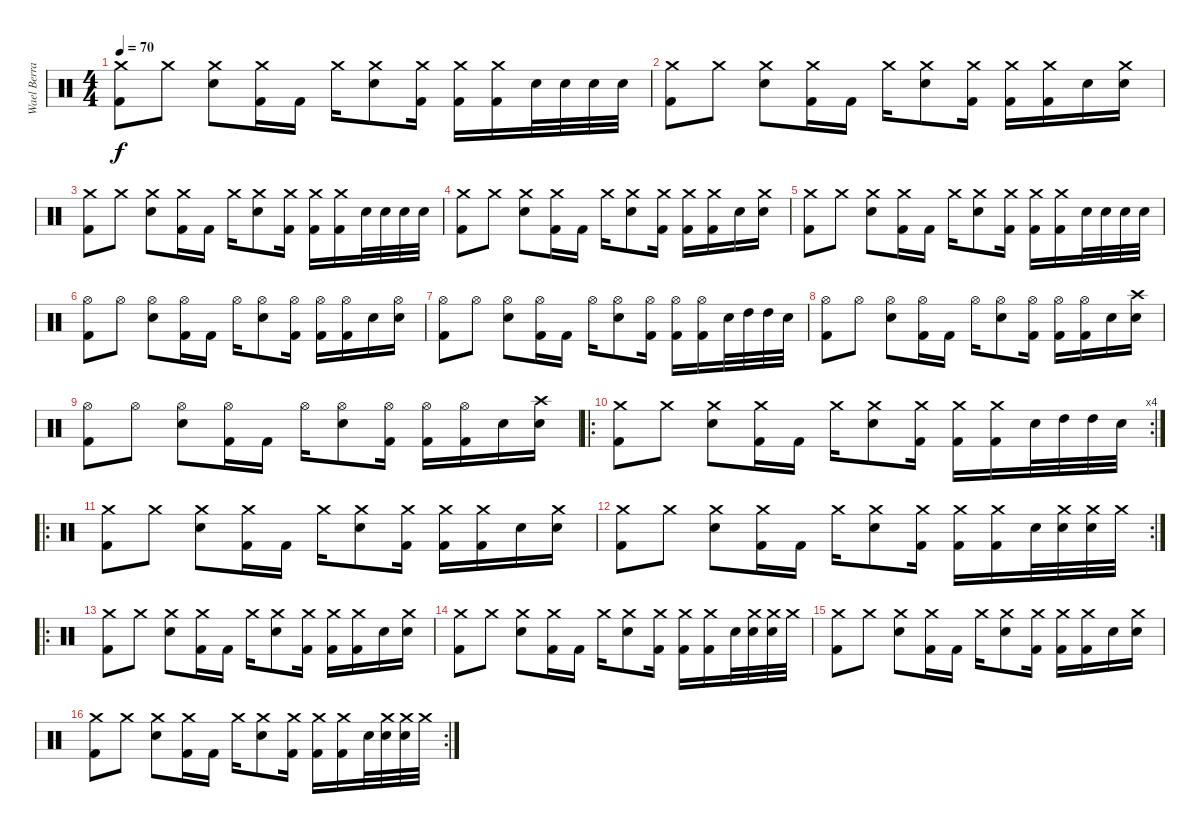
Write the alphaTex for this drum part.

\track ("Wael Berrais" "Wael Berra") {instrument percussion}
\staff {score}
\articulation defaults
\ts (4 4)
\tempo 70
\clef neutral
\ks c
("Crash medium (hit)" "Kick (hit) 2").8{dy f} "Crash medium (hit)".8 ("Crash medium (hit)" "Electric Snare (hit)").8 ("Crash medium (hit)" "Kick (hit) 2").16 "Kick (hit) 2".16 "Crash medium (hit)".16 ("Crash medium (hit)" "Electric Snare (hit)").8 ("Crash medium (hit)" "Kick (hit) 2").16 ("Crash medium (hit)" "Kick (hit) 2").16 ("Crash medium (hit)" "Kick (hit) 2").16 "Electric Snare (hit)".32 "Electric Snare (hit)".32 "Electric Snare (hit)".32 "Electric Snare (hit)".32 |
("Crash medium (hit)" "Kick (hit) 2").8 "Crash medium (hit)".8 ("Crash medium (hit)" "Electric Snare (hit)").8 ("Crash medium (hit)" "Kick (hit) 2").16 "Kick (hit) 2".16 "Crash medium (hit)".16 ("Crash medium (hit)" "Electric Snare (hit)").8 ("Crash medium (hit)" "Kick (hit) 2").16 ("Crash medium (hit)" "Kick (hit) 2").16 ("Crash medium (hit)" "Kick (hit) 2").16 "Electric Snare (hit)".16 ("Electric Snare (hit)" "Crash medium (hit)").16 |
("Crash medium (hit)" "Kick (hit) 2").8 "Crash medium (hit)".8 ("Crash medium (hit)" "Electric Snare (hit)").8 ("Crash medium (hit)" "Kick (hit) 2").16 "Kick (hit) 2".16 "Crash medium (hit)".16 ("Crash medium (hit)" "Electric Snare (hit)").8 ("Crash medium (hit)" "Kick (hit) 2").16 ("Crash medium (hit)" "Kick (hit) 2").16 ("Crash medium (hit)" "Kick (hit) 2").16 "Electric Snare (hit)".32 "Electric Snare (hit)".32 "Electric Snare (hit)".32 "Electric Snare (hit)".32 |
("Crash medium (hit)" "Kick (hit) 2").8 "Crash medium (hit)".8 ("Crash medium (hit)" "Electric Snare (hit)").8 ("Crash medium (hit)" "Kick (hit) 2").16 "Kick (hit) 2".16 "Crash medium (hit)".16 ("Crash medium (hit)" "Electric Snare (hit)").8 ("Crash medium (hit)" "Kick (hit) 2").16 ("Crash medium (hit)" "Kick (hit) 2").16 ("Crash medium (hit)" "Kick (hit) 2").16 "Electric Snare (hit)".16 ("Electric Snare (hit)" "Crash medium (hit)").16 |
("Crash medium (hit)" "Kick (hit) 2").8 "Crash medium (hit)".8 ("Crash medium (hit)" "Electric Snare (hit)").8 ("Crash medium (hit)" "Kick (hit) 2").16 "Kick (hit) 2".16 "Crash medium (hit)".16 ("Crash medium (hit)" "Electric Snare (hit)").8 ("Crash medium (hit)" "Kick (hit) 2").16 ("Crash medium (hit)" "Kick (hit) 2").16 ("Crash medium (hit)" "Kick (hit) 2").16 "Electric Snare (hit)".32 "Electric Snare (hit)".32 "Electric Snare (hit)".32 "Electric Snare (hit)".32 |
("Hi-Hat (open)" "Kick (hit) 2").8 "Hi-Hat (open)".8 ("Hi-Hat (open)" "Electric Snare (hit)").8 ("Hi-Hat (open)" "Kick (hit) 2").16 "Kick (hit) 2".16 "Hi-Hat (open)".16 ("Hi-Hat (open)" "Electric Snare (hit)").8 ("Hi-Hat (open)" "Kick (hit) 2").16 ("Hi-Hat (open)" "Kick (hit) 2").16 ("Hi-Hat (open)" "Kick (hit) 2").16 "Electric Snare (hit)".16 ("Electric Snare (hit)" "Hi-Hat (open)").16 |
("Hi-Hat (open)" "Kick (hit) 2").8 "Hi-Hat (open)".8 ("Hi-Hat (open)" "Electric Snare (hit)").8 ("Hi-Hat (open)" "Kick (hit) 2").16 "Kick (hit) 2".16 "Hi-Hat (open)".16 ("Hi-Hat (open)" "Electric Snare (hit)").8 ("Hi-Hat (open)" "Kick (hit) 2").16 ("Hi-Hat (open)" "Kick (hit) 2").16 ("Hi-Hat (open)" "Kick (hit) 2").16 "Electric Snare (hit)".32 "High Tom (hit)".32 "High Tom (hit)".32 "Electric Snare (hit)".32 |
("Hi-Hat (open)" "Kick (hit) 2").8 "Hi-Hat (open)".8 ("Hi-Hat (open)" "Electric Snare (hit)").8 ("Hi-Hat (open)" "Kick (hit) 2").16 "Kick (hit) 2".16 "Hi-Hat (open)".16 ("Hi-Hat (open)" "Electric Snare (hit)").8 ("Hi-Hat (open)" "Kick (hit) 2").16 ("Hi-Hat (open)" "Kick (hit) 2").16 ("Hi-Hat (open)" "Kick (hit) 2").16 "Electric Snare (hit)".16 ("Electric Snare (hit)" "Crash high (hit)").16 |
("Hi-Hat (open)" "Kick (hit) 2").8 "Hi-Hat (open)".8 ("Hi-Hat (open)" "Electric Snare (hit)").8 ("Hi-Hat (open)" "Kick (hit) 2").16 "Kick (hit) 2".16 "Hi-Hat (open)".16 ("Hi-Hat (open)" "Electric Snare (hit)").8 ("Hi-Hat (open)" "Kick (hit) 2").16 ("Hi-Hat (open)" "Kick (hit) 2").16 ("Hi-Hat (open)" "Kick (hit) 2").16 "Electric Snare (hit)".16 ("Electric Snare (hit)" "Crash high (hit)").16 |
\ro
\rc 4
("Crash medium (hit)" "Kick (hit) 2").8 "Crash medium (hit)".8 ("Crash medium (hit)" "Electric Snare (hit)").8 ("Crash medium (hit)" "Kick (hit) 2").16 "Kick (hit) 2".16 "Crash medium (hit)".16 ("Crash medium (hit)" "Electric Snare (hit)").8 ("Crash medium (hit)" "Kick (hit) 2").16 ("Crash medium (hit)" "Kick (hit) 2").16 ("Crash medium (hit)" "Kick (hit) 2").16 "Electric Snare (hit)".32 "High Tom (hit)".32 "High Tom (hit)".32 "Electric Snare (hit)".32 |
\ro
("Crash medium (hit)" "Kick (hit) 2").8 "Crash medium (hit)".8 ("Crash medium (hit)" "Electric Snare (hit)").8 ("Crash medium (hit)" "Kick (hit) 2").16 "Kick (hit) 2".16 "Crash medium (hit)".16 ("Crash medium (hit)" "Electric Snare (hit)").8 ("Crash medium (hit)" "Kick (hit) 2").16 ("Crash medium (hit)" "Kick (hit) 2").16 ("Crash medium (hit)" "Kick (hit) 2").16 "Electric Snare (hit)".16 ("Electric Snare (hit)" "Crash medium (hit)").16 |
\rc 2
("Crash medium (hit)" "Kick (hit) 2").8 "Crash medium (hit)".8 ("Crash medium (hit)" "Electric Snare (hit)").8 ("Crash medium (hit)" "Kick (hit) 2").16 "Kick (hit) 2".16 "Crash medium (hit)".16 ("Crash medium (hit)" "Electric Snare (hit)").8 ("Crash medium (hit)" "Kick (hit) 2").16 ("Crash medium (hit)" "Kick (hit) 2").16 ("Crash medium (hit)" "Kick (hit) 2").16 "Electric Snare (hit)".32 ("Electric Snare (hit)" "Crash medium (hit)").32 ("Electric Snare (hit)" "Crash medium (hit)").32 "Crash medium (hit)".32 |
\ro
("Crash medium (hit)" "Kick (hit) 2").8 "Crash medium (hit)".8 ("Crash medium (hit)" "Electric Snare (hit)").8 ("Crash medium (hit)" "Kick (hit) 2").16 "Kick (hit) 2".16 "Crash medium (hit)".16 ("Crash medium (hit)" "Electric Snare (hit)").8 ("Crash medium (hit)" "Kick (hit) 2").16 ("Crash medium (hit)" "Kick (hit) 2").16 ("Crash medium (hit)" "Kick (hit) 2").16 "Electric Snare (hit)".16 ("Electric Snare (hit)" "Crash medium (hit)").16 |
("Crash medium (hit)" "Kick (hit) 2").8 "Crash medium (hit)".8 ("Crash medium (hit)" "Electric Snare (hit)").8 ("Crash medium (hit)" "Kick (hit) 2").16 "Kick (hit) 2".16 "Crash medium (hit)".16 ("Crash medium (hit)" "Electric Snare (hit)").8 ("Crash medium (hit)" "Kick (hit) 2").16 ("Crash medium (hit)" "Kick (hit) 2").16 ("Crash medium (hit)" "Kick (hit) 2").16 "Electric Snare (hit)".32 ("Electric Snare (hit)" "Crash medium (hit)").32 ("Electric Snare (hit)" "Crash medium (hit)").32 "Crash medium (hit)".32 |
("Crash medium (hit)" "Kick (hit) 2").8 "Crash medium (hit)".8 ("Crash medium (hit)" "Electric Snare (hit)").8 ("Crash medium (hit)" "Kick (hit) 2").16 "Kick (hit) 2".16 "Crash medium (hit)".16 ("Crash medium (hit)" "Electric Snare (hit)").8 ("Crash medium (hit)" "Kick (hit) 2").16 ("Crash medium (hit)" "Kick (hit) 2").16 ("Crash medium (hit)" "Kick (hit) 2").16 "Electric Snare (hit)".16 ("Electric Snare (hit)" "Crash medium (hit)").16 |
\rc 2
("Crash medium (hit)" "Kick (hit) 2").8 "Crash medium (hit)".8 ("Crash medium (hit)" "Electric Snare (hit)").8 ("Crash medium (hit)" "Kick (hit) 2").16 "Kick (hit) 2".16 "Crash medium (hit)".16 ("Crash medium (hit)" "Electric Snare (hit)").8 ("Crash medium (hit)" "Kick (hit) 2").16 ("Crash medium (hit)" "Kick (hit) 2").16 ("Crash medium (hit)" "Kick (hit) 2").16 "Electric Snare (hit)".32 ("Electric Snare (hit)" "Crash medium (hit)").32 ("Electric Snare (hit)" "Crash medium (hit)").32 "Crash medium (hit)".32
